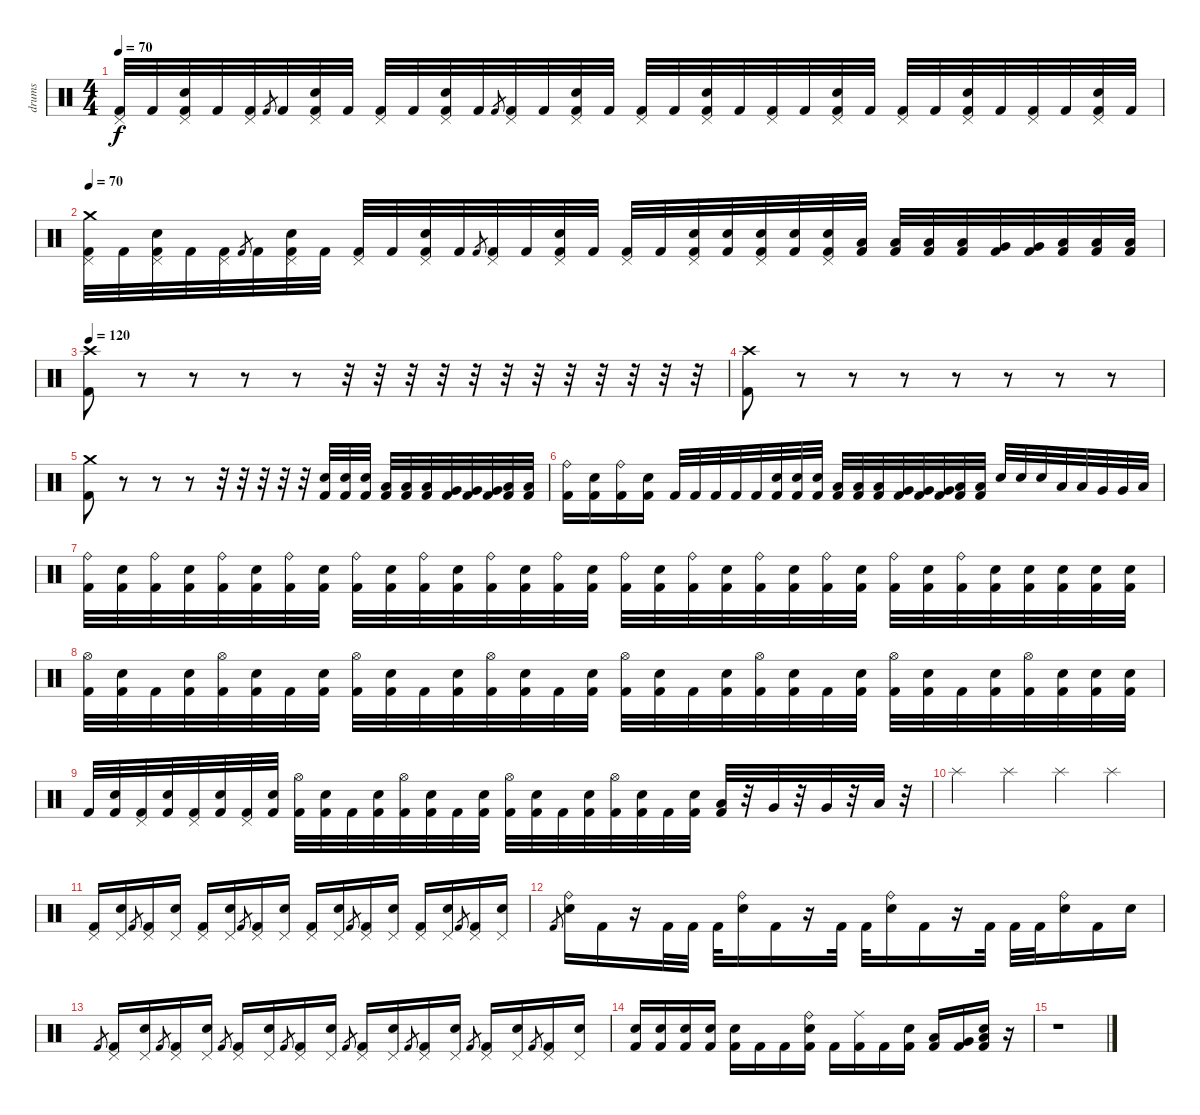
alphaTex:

\track ("drums" "drums") {instrument percussion}
\staff {score}
\articulation defaults
\ts (4 4)
\tempo 70
\clef neutral
\ks c
("Pedal Hi-Hat (hit)" "Kick (hit) 2").32{dy f} "Kick (hit) 2".32 ("Electric Snare (hit)" "Pedal Hi-Hat (hit)" "Kick (hit) 2").32 "Kick (hit) 2".32 ("Pedal Hi-Hat (hit)" "Kick (hit) 2").32 "Kick (hit) 2".8{gr} "Kick (hit) 2".32 ("Electric Snare (hit)" "Pedal Hi-Hat (hit)" "Kick (hit) 2").32 "Kick (hit) 2".32 ("Pedal Hi-Hat (hit)" "Kick (hit) 2").32 "Kick (hit) 2".32 ("Electric Snare (hit)" "Pedal Hi-Hat (hit)" "Kick (hit) 2").32 "Kick (hit) 2".32 "Kick (hit) 2".8{gr} ("Pedal Hi-Hat (hit)" "Kick (hit) 2").32 "Kick (hit) 2".32 ("Electric Snare (hit)" "Pedal Hi-Hat (hit)" "Kick (hit) 2").32 "Kick (hit) 2".32 ("Pedal Hi-Hat (hit)" "Kick (hit) 2").32 "Kick (hit) 2".32 ("Electric Snare (hit)" "Pedal Hi-Hat (hit)" "Kick (hit) 2").32 "Kick (hit) 2".32 ("Pedal Hi-Hat (hit)" "Kick (hit) 2").32 "Kick (hit) 2".32 ("Electric Snare (hit)" "Pedal Hi-Hat (hit)" "Kick (hit) 2").32 "Kick (hit) 2".32 ("Pedal Hi-Hat (hit)" "Kick (hit) 2").32 "Kick (hit) 2".32 ("Electric Snare (hit)" "Pedal Hi-Hat (hit)" "Kick (hit) 2").32 "Kick (hit) 2".32 ("Pedal Hi-Hat (hit)" "Kick (hit) 2").32 "Kick (hit) 2".32 ("Electric Snare (hit)" "Pedal Hi-Hat (hit)" "Kick (hit) 2").32 "Kick (hit) 2".32 |
\tempo 70
("Crash medium (hit)" "Pedal Hi-Hat (hit)" "Kick (hit) 2").32 "Kick (hit) 2".32 ("Electric Snare (hit)" "Pedal Hi-Hat (hit)" "Kick (hit) 2").32 "Kick (hit) 2".32 ("Pedal Hi-Hat (hit)" "Kick (hit) 2").32 "Kick (hit) 2".8{gr} "Kick (hit) 2".32 ("Electric Snare (hit)" "Pedal Hi-Hat (hit)" "Kick (hit) 2").32 "Kick (hit) 2".32 ("Pedal Hi-Hat (hit)" "Kick (hit) 2").32 "Kick (hit) 2".32 ("Electric Snare (hit)" "Pedal Hi-Hat (hit)" "Kick (hit) 2").32 "Kick (hit) 2".32 "Kick (hit) 2".8{gr} ("Pedal Hi-Hat (hit)" "Kick (hit) 2").32 "Kick (hit) 2".32 ("Electric Snare (hit)" "Pedal Hi-Hat (hit)" "Kick (hit) 2").32 "Kick (hit) 2".32 ("Pedal Hi-Hat (hit)" "Kick (hit) 2").32 "Kick (hit) 2".32 ("Electric Snare (hit)" "Pedal Hi-Hat (hit)" "Kick (hit) 2").32 ("Electric Snare (hit)" "Kick (hit) 2").32 ("Electric Snare (hit)" "Pedal Hi-Hat (hit)" "Kick (hit) 2").32 ("Electric Snare (hit)" "Kick (hit) 2").32 ("Electric Snare (hit)" "Pedal Hi-Hat (hit)" "Kick (hit) 2").32 ("Low Tom (hit)" "Kick (hit) 2").32 ("Low Tom (hit)" "Kick (hit) 2").32 ("Low Tom (hit)" "Kick (hit) 2").32 ("Low Tom (hit)" "Kick (hit) 2").32 ("Very Low Tom (hit)" "Kick (hit) 2").32 ("Very Low Tom (hit)" "Kick (hit) 2").32 ("Low Floor Tom (hit)" "Kick (hit) 2").32 ("Low Floor Tom (hit)" "Kick (hit) 2").32 ("Low Floor Tom (hit)" "Kick (hit) 2").32 |
\tempo 120
("Crash high (hit)" "Kick (hit) 2").8 r.8 r.8 r.8 r.8 r.32 r.32 r.32 r.32 r.32 r.32 r.32 r.32 r.32 r.32 r.32 r.32 |
("Crash high (hit)" "Kick (hit) 2").8 r.8 r.8 r.8 r.8 r.8 r.8 r.8 |
("Crash medium (hit)" "Kick (hit) 2").8 r.8 r.8 r.8 r.32 r.32 r.32 r.32 r.32 ("Electric Snare (hit)" "Kick (hit) 2").32 ("Electric Snare (hit)" "Kick (hit) 2").32 ("Electric Snare (hit)" "Kick (hit) 2").32 ("Low Tom (hit)" "Kick (hit) 2").32 ("Low Tom (hit)" "Kick (hit) 2").32 ("Low Tom (hit)" "Kick (hit) 2").32 ("Very Low Tom (hit)" "Kick (hit) 2").32 ("Very Low Tom (hit)" "Kick (hit) 2").32 ("Very Low Tom (hit)" "Kick (hit) 2").32 ("Low Floor Tom (hit)" "Kick (hit) 2").32 ("Low Floor Tom (hit)" "Kick (hit) 2").32 |
("Ride (bell)" "Kick (hit) 2").16 ("Electric Snare (hit)" "Kick (hit) 2").16 ("Ride (bell)" "Kick (hit) 2").16 ("Electric Snare (hit)" "Kick (hit) 2").16 "Kick (hit) 2".32 "Kick (hit) 2".32 "Kick (hit) 2".32 "Kick (hit) 2".32 "Kick (hit) 2".32 ("Electric Snare (hit)" "Kick (hit) 2").32 ("Electric Snare (hit)" "Kick (hit) 2").32 ("Electric Snare (hit)" "Kick (hit) 2").32 ("Low Tom (hit)" "Kick (hit) 2").32 ("Low Tom (hit)" "Kick (hit) 2").32 ("Low Tom (hit)" "Kick (hit) 2").32 ("Very Low Tom (hit)" "Kick (hit) 2").32 ("Very Low Tom (hit)" "Kick (hit) 2").32 ("Very Low Tom (hit)" "Kick (hit) 2").32 ("Low Floor Tom (hit)" "Kick (hit) 2").32 ("Low Floor Tom (hit)" "Kick (hit) 2").32 "Electric Snare (hit)".32 "Electric Snare (hit)".32 "Electric Snare (hit)".32 "Low Tom (hit)".32 "Low Tom (hit)".32 "Very Low Tom (hit)".32 "Very Low Tom (hit)".32 "Low Floor Tom (hit)".32 |
("Ride (bell)" "Kick (hit) 2").32 ("Electric Snare (hit)" "Kick (hit) 2").32 ("Ride (bell)" "Kick (hit) 2").32 ("Electric Snare (hit)" "Kick (hit) 2").32 ("Ride (bell)" "Kick (hit) 2").32 ("Electric Snare (hit)" "Kick (hit) 2").32 ("Ride (bell)" "Kick (hit) 2").32 ("Electric Snare (hit)" "Kick (hit) 2").32 ("Ride (bell)" "Kick (hit) 2").32 ("Electric Snare (hit)" "Kick (hit) 2").32 ("Ride (bell)" "Kick (hit) 2").32 ("Electric Snare (hit)" "Kick (hit) 2").32 ("Ride (bell)" "Kick (hit) 2").32 ("Electric Snare (hit)" "Kick (hit) 2").32 ("Ride (bell)" "Kick (hit) 2").32 ("Electric Snare (hit)" "Kick (hit) 2").32 ("Ride (bell)" "Kick (hit) 2").32 ("Electric Snare (hit)" "Kick (hit) 2").32 ("Ride (bell)" "Kick (hit) 2").32 ("Electric Snare (hit)" "Kick (hit) 2").32 ("Ride (bell)" "Kick (hit) 2").32 ("Electric Snare (hit)" "Kick (hit) 2").32 ("Ride (bell)" "Kick (hit) 2").32 ("Electric Snare (hit)" "Kick (hit) 2").32 ("Ride (bell)" "Kick (hit) 2").32 ("Electric Snare (hit)" "Kick (hit) 2").32 ("Ride (bell)" "Kick (hit) 2").32 ("Electric Snare (hit)" "Kick (hit) 2").32 ("Electric Snare (hit)" "Kick (hit) 2").32 ("Electric Snare (hit)" "Kick (hit) 2").32 ("Electric Snare (hit)" "Kick (hit) 2").32 ("Electric Snare (hit)" "Kick (hit) 2").32 |
("Hi-Hat (open)" "Kick (hit) 2").32 ("Electric Snare (hit)" "Kick (hit) 2").32 "Kick (hit) 2".32 ("Electric Snare (hit)" "Kick (hit) 2").32 ("Hi-Hat (open)" "Kick (hit) 2").32 ("Electric Snare (hit)" "Kick (hit) 2").32 "Kick (hit) 2".32 ("Electric Snare (hit)" "Kick (hit) 2").32 ("Hi-Hat (open)" "Kick (hit) 2").32 ("Electric Snare (hit)" "Kick (hit) 2").32 "Kick (hit) 2".32 ("Electric Snare (hit)" "Kick (hit) 2").32 ("Hi-Hat (open)" "Kick (hit) 2").32 ("Electric Snare (hit)" "Kick (hit) 2").32 "Kick (hit) 2".32 ("Electric Snare (hit)" "Kick (hit) 2").32 ("Hi-Hat (open)" "Kick (hit) 2").32 ("Electric Snare (hit)" "Kick (hit) 2").32 "Kick (hit) 2".32 ("Electric Snare (hit)" "Kick (hit) 2").32 ("Hi-Hat (open)" "Kick (hit) 2").32 ("Electric Snare (hit)" "Kick (hit) 2").32 "Kick (hit) 2".32 ("Electric Snare (hit)" "Kick (hit) 2").32 ("Hi-Hat (open)" "Kick (hit) 2").32 ("Electric Snare (hit)" "Kick (hit) 2").32 "Kick (hit) 2".32 ("Electric Snare (hit)" "Kick (hit) 2").32 ("Hi-Hat (open)" "Kick (hit) 2").32 ("Electric Snare (hit)" "Kick (hit) 2").32 ("Electric Snare (hit)" "Kick (hit) 2").32 ("Electric Snare (hit)" "Kick (hit) 2").32 |
"Kick (hit) 2".32 ("Electric Snare (hit)" "Kick (hit) 2").32 ("Pedal Hi-Hat (hit)" "Kick (hit) 2").32 ("Electric Snare (hit)" "Kick (hit) 2").32 ("Pedal Hi-Hat (hit)" "Kick (hit) 2").32 ("Electric Snare (hit)" "Kick (hit) 2").32 ("Pedal Hi-Hat (hit)" "Kick (hit) 2").32 ("Electric Snare (hit)" "Kick (hit) 2").32 ("Hi-Hat (open)" "Kick (hit) 2").32 ("Electric Snare (hit)" "Kick (hit) 2").32 "Kick (hit) 2".32 ("Electric Snare (hit)" "Kick (hit) 2").32 ("Hi-Hat (open)" "Kick (hit) 2").32 ("Electric Snare (hit)" "Kick (hit) 2").32 "Kick (hit) 2".32 ("Electric Snare (hit)" "Kick (hit) 2").32 ("Hi-Hat (open)" "Kick (hit) 2").32 ("Electric Snare (hit)" "Kick (hit) 2").32 "Kick (hit) 2".32 ("Electric Snare (hit)" "Kick (hit) 2").32 ("Hi-Hat (open)" "Kick (hit) 2").32 ("Electric Snare (hit)" "Kick (hit) 2").32 "Kick (hit) 2".32 ("Electric Snare (hit)" "Kick (hit) 2").32 ("Low Tom (hit)" "Kick (hit) 2").32 r.32 "Very Low Tom (hit)".32 r.32 "Very Low Tom (hit)".32 r.32 "Low Floor Tom (hit)".32 r.32 |
"Splash (hit)".4 "Splash (hit)".4 "Splash (hit)".4 "Splash (hit)".4 |
("Pedal Hi-Hat (hit)" "Kick (hit) 2").16 ("Pedal Hi-Hat (hit)" "Electric Snare (hit)").16 "Kick (hit) 2".8{gr} ("Pedal Hi-Hat (hit)" "Kick (hit) 2").16 ("Pedal Hi-Hat (hit)" "Electric Snare (hit)").16 ("Pedal Hi-Hat (hit)" "Kick (hit) 2").16 ("Pedal Hi-Hat (hit)" "Electric Snare (hit)").16 "Kick (hit) 2".8{gr} ("Pedal Hi-Hat (hit)" "Kick (hit) 2").16 ("Pedal Hi-Hat (hit)" "Electric Snare (hit)").16 ("Pedal Hi-Hat (hit)" "Kick (hit) 2").16 ("Pedal Hi-Hat (hit)" "Electric Snare (hit)").16 "Kick (hit) 2".8{gr} ("Pedal Hi-Hat (hit)" "Kick (hit) 2").16 ("Pedal Hi-Hat (hit)" "Electric Snare (hit)").16 ("Pedal Hi-Hat (hit)" "Kick (hit) 2").16 ("Pedal Hi-Hat (hit)" "Electric Snare (hit)").16 "Kick (hit) 2".8{gr} ("Pedal Hi-Hat (hit)" "Kick (hit) 2").16 ("Pedal Hi-Hat (hit)" "Electric Snare (hit)").16 |
"Kick (hit) 2".8{gr} ("Ride (bell)" "Electric Snare (hit)").16 "Kick (hit) 2".16 r.16 "Kick (hit) 2".32 "Kick (hit) 2".32 "Kick (hit) 2".32 ("Ride (bell)" "Electric Snare (hit)").16 "Kick (hit) 2".16 r.16 "Kick (hit) 2".32 "Kick (hit) 2".32 ("Ride (bell)" "Electric Snare (hit)").16 "Kick (hit) 2".16 r.16 "Kick (hit) 2".32 "Kick (hit) 2".32 "Kick (hit) 2".32 ("Ride (bell)" "Electric Snare (hit)").16 "Kick (hit) 2".16 "Electric Snare (hit)".16 |
"Kick (hit) 2".8{gr} ("Pedal Hi-Hat (hit)" "Kick (hit) 2").16 ("Pedal Hi-Hat (hit)" "Electric Snare (hit)").16 "Kick (hit) 2".8{gr} ("Pedal Hi-Hat (hit)" "Kick (hit) 2").16 ("Pedal Hi-Hat (hit)" "Electric Snare (hit)").16 "Kick (hit) 2".8{gr} ("Pedal Hi-Hat (hit)" "Kick (hit) 2").16 ("Pedal Hi-Hat (hit)" "Electric Snare (hit)").16 "Kick (hit) 2".8{gr} ("Pedal Hi-Hat (hit)" "Kick (hit) 2").16 ("Pedal Hi-Hat (hit)" "Electric Snare (hit)").16 "Kick (hit) 2".8{gr} ("Pedal Hi-Hat (hit)" "Kick (hit) 2").16 ("Pedal Hi-Hat (hit)" "Electric Snare (hit)").16 "Kick (hit) 2".8{gr} ("Pedal Hi-Hat (hit)" "Kick (hit) 2").16 ("Pedal Hi-Hat (hit)" "Electric Snare (hit)").16 "Kick (hit) 2".8{gr} ("Pedal Hi-Hat (hit)" "Kick (hit) 2").16 ("Pedal Hi-Hat (hit)" "Electric Snare (hit)").16 "Kick (hit) 2".8{gr} ("Pedal Hi-Hat (hit)" "Kick (hit) 2").16 ("Pedal Hi-Hat (hit)" "Electric Snare (hit)").16 |
("Electric Snare (hit)" "Kick (hit) 2").16 ("Electric Snare (hit)" "Kick (hit) 2").16 ("Electric Snare (hit)" "Kick (hit) 2").16 ("Electric Snare (hit)" "Kick (hit) 2").16 ("Electric Snare (hit)" "Kick (hit) 2").16 "Kick (hit) 2".16 "Kick (hit) 2".16 ("Ride (bell)" "Electric Snare (hit)" "Kick (hit) 2").16 "Kick (hit) 2".16 ("Ride (middle)" "Kick (hit) 2").16 "Kick (hit) 2".16 ("Electric Snare (hit)" "Kick (hit) 2").16 ("Low Tom (hit)" "Kick (hit) 2").16 ("Very Low Tom (hit)" "Kick (hit) 2").16 ("Electric Snare (hit)" "Low Floor Tom (hit)" "Kick (hit) 2").16 r.16 |
r.1
